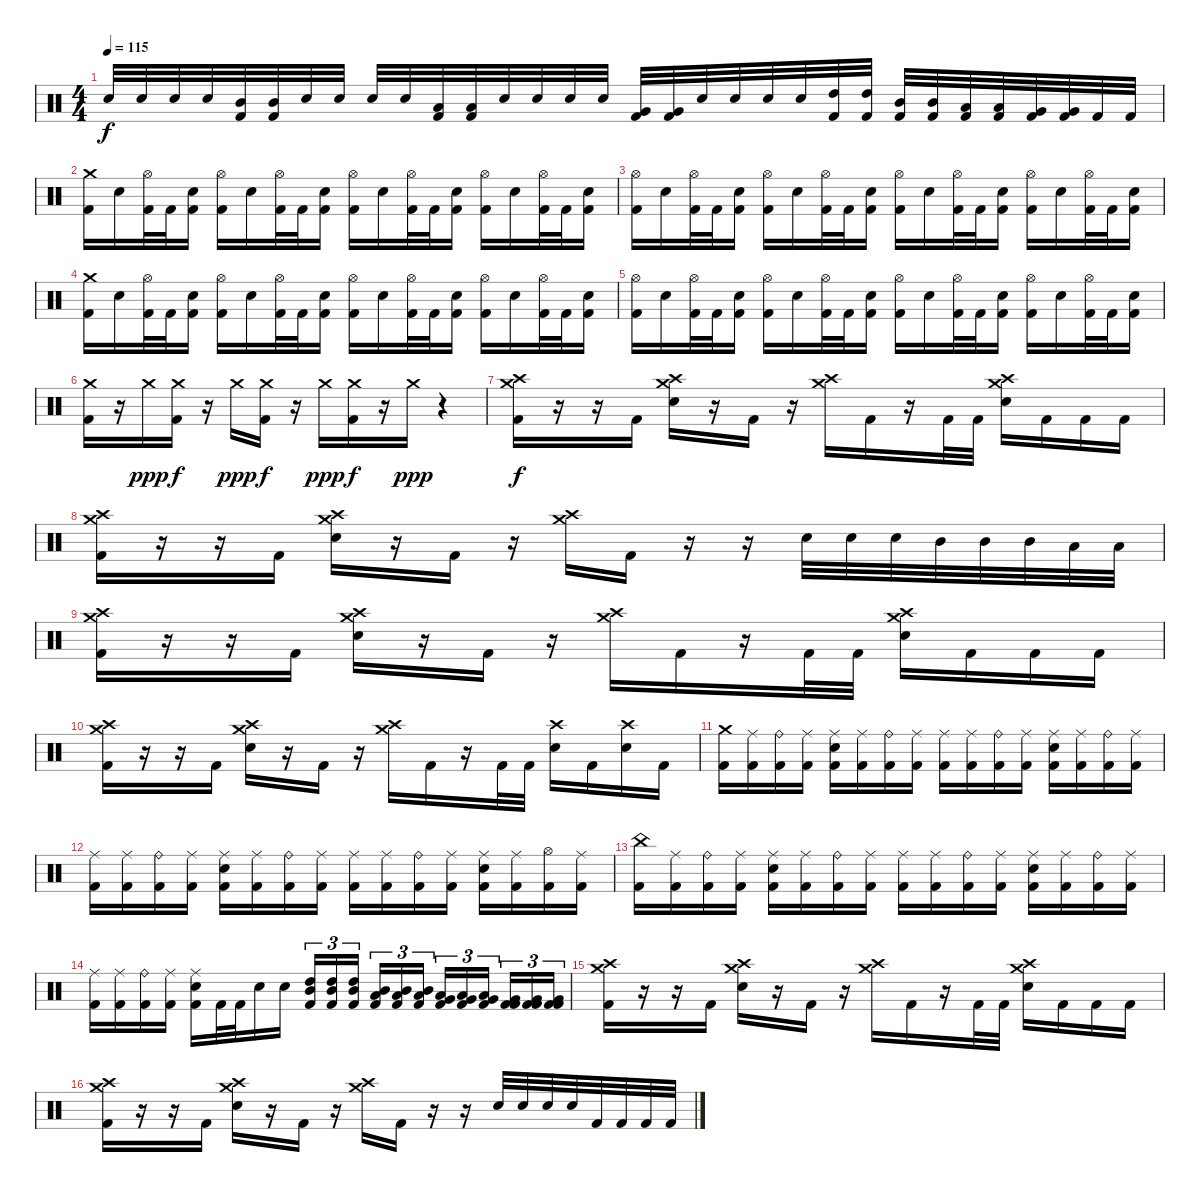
\track "" {instrument percussion}
\staff {score}
\articulation defaults
\ts (4 4)
\tempo 115
\clef neutral
\ks c "Electric Snare (hit)".32{dy f} "Electric Snare (hit)".32 "Electric Snare (hit)".32 "Electric Snare (hit)".32
("Kick (hit) 2" "Mid Tom (hit)").32 ("Kick (hit) 2" "Mid Tom (hit)").32 "Electric Snare (hit)".32 "Electric Snare (hit)".32 "Electric Snare (hit)".32 "Electric Snare (hit)".32 ("Kick (hit) 2" "Low Tom (hit)").32 ("Kick (hit) 2" "Low Tom (hit)").32 "Electric Snare (hit)".32 "Electric Snare (hit)".32 "Electric Snare (hit)".32 "Electric Snare (hit)".32 ("Kick (hit) 2" "Very Low Tom (hit)").32 ("Kick (hit) 2" "Very Low Tom (hit)").32 "Electric Snare (hit)".32 "Electric Snare (hit)".32 "Electric Snare (hit)".32 "Electric Snare (hit)".32 ("Kick (hit) 2" "High Tom (hit)").32 ("Kick (hit) 2" "High Tom (hit)").32 ("Kick (hit) 2" "Mid Tom (hit)").32 ("Kick (hit) 2" "Mid Tom (hit)").32 ("Kick (hit) 2" "Low Tom (hit)").32 ("Kick (hit) 2" "Low Tom (hit)").32 ("Kick (hit) 2" "Very Low Tom (hit)").32 ("Kick (hit) 2" "Very Low Tom (hit)").32 "Kick (hit) 2".32 "Kick (hit) 2".32 |
("Kick (hit) 2" "Crash medium (hit)").16 "Electric Snare (hit)".16 ("Kick (hit) 2" "Hi-Hat (open)").32 "Kick (hit) 2".32 ("Kick (hit) 2" "Electric Snare (hit)").16 ("Kick (hit) 2" "Hi-Hat (open)").16 "Electric Snare (hit)".16 ("Kick (hit) 2" "Hi-Hat (open)").32 "Kick (hit) 2".32 ("Kick (hit) 2" "Electric Snare (hit)").16 ("Kick (hit) 2" "Hi-Hat (open)").16 "Electric Snare (hit)".16 ("Kick (hit) 2" "Hi-Hat (open)").32 "Kick (hit) 2".32 ("Kick (hit) 2" "Electric Snare (hit)").16 ("Kick (hit) 2" "Hi-Hat (open)").16 "Electric Snare (hit)".16 ("Kick (hit) 2" "Hi-Hat (open)").32 "Kick (hit) 2".32 ("Kick (hit) 2" "Electric Snare (hit)").16 |
("Kick (hit) 2" "Hi-Hat (open)").16 "Electric Snare (hit)".16 ("Kick (hit) 2" "Hi-Hat (open)").32 "Kick (hit) 2".32 ("Kick (hit) 2" "Electric Snare (hit)").16 ("Kick (hit) 2" "Hi-Hat (open)").16 "Electric Snare (hit)".16 ("Kick (hit) 2" "Hi-Hat (open)").32 "Kick (hit) 2".32 ("Kick (hit) 2" "Electric Snare (hit)").16 ("Kick (hit) 2" "Hi-Hat (open)").16 "Electric Snare (hit)".16 ("Kick (hit) 2" "Hi-Hat (open)").32 "Kick (hit) 2".32 ("Kick (hit) 2" "Electric Snare (hit)").16 ("Kick (hit) 2" "Hi-Hat (open)").16 "Electric Snare (hit)".16 ("Kick (hit) 2" "Hi-Hat (open)").32 "Kick (hit) 2".32 ("Kick (hit) 2" "Electric Snare (hit)").16 |
("Kick (hit) 2" "Crash medium (hit)").16 "Electric Snare (hit)".16 ("Kick (hit) 2" "Hi-Hat (open)").32 "Kick (hit) 2".32 ("Kick (hit) 2" "Electric Snare (hit)").16 ("Kick (hit) 2" "Hi-Hat (open)").16 "Electric Snare (hit)".16 ("Kick (hit) 2" "Hi-Hat (open)").32 "Kick (hit) 2".32 ("Kick (hit) 2" "Electric Snare (hit)").16 ("Kick (hit) 2" "Hi-Hat (open)").16 "Electric Snare (hit)".16 ("Kick (hit) 2" "Hi-Hat (open)").32 "Kick (hit) 2".32 ("Kick (hit) 2" "Electric Snare (hit)").16 ("Kick (hit) 2" "Hi-Hat (open)").16 "Electric Snare (hit)".16 ("Kick (hit) 2" "Hi-Hat (open)").32 "Kick (hit) 2".32 ("Kick (hit) 2" "Electric Snare (hit)").16 |
("Kick (hit) 2" "Hi-Hat (open)").16 "Electric Snare (hit)".16 ("Kick (hit) 2" "Hi-Hat (open)").32 "Kick (hit) 2".32 ("Kick (hit) 2" "Electric Snare (hit)").16 ("Kick (hit) 2" "Hi-Hat (open)").16 "Electric Snare (hit)".16 ("Kick (hit) 2" "Hi-Hat (open)").32 "Kick (hit) 2".32 ("Kick (hit) 2" "Electric Snare (hit)").16 ("Kick (hit) 2" "Hi-Hat (open)").16 "Electric Snare (hit)".16 ("Kick (hit) 2" "Hi-Hat (open)").32 "Kick (hit) 2".32 ("Kick (hit) 2" "Electric Snare (hit)").16 ("Kick (hit) 2" "Hi-Hat (open)").16 "Electric Snare (hit)".16 ("Kick (hit) 2" "Hi-Hat (open)").32 "Kick (hit) 2".32 ("Kick (hit) 2" "Electric Snare (hit)").16 |
("Kick (hit) 2" "Crash medium (hit)").16 r.16 "Crash medium (hit)".16{dy ppp} ("Kick (hit) 2" "Crash medium (hit)").16{dy f} r.16 "Crash medium (hit)".16{dy ppp} ("Kick (hit) 2" "Crash medium (hit)").16{dy f} r.16 "Crash medium (hit)".16{dy ppp} ("Kick (hit) 2" "Crash medium (hit)").16{dy f} r.16 "Crash medium (hit)".16{dy ppp} r.4 |
("Kick (hit) 2" "Crash high (hit)" "Crash medium (hit)").16{dy f} r.16 r.16 "Kick (hit) 2".16 ("Electric Snare (hit)" "Crash high (hit)" "Crash medium (hit)").16 r.16 "Kick (hit) 2".16 r.16 ("Crash high (hit)" "Crash medium (hit)").16 "Kick (hit) 2".16 r.16 "Kick (hit) 2".32 "Kick (hit) 2".32 ("Electric Snare (hit)" "Crash high (hit)" "Crash medium (hit)").16 "Kick (hit) 2".16 "Kick (hit) 2".16 "Kick (hit) 2".16 |
("Kick (hit) 2" "Crash high (hit)" "Crash medium (hit)").16 r.16 r.16 "Kick (hit) 2".16 ("Electric Snare (hit)" "Crash high (hit)" "Crash medium (hit)").16 r.16 "Kick (hit) 2".16 r.16 ("Crash high (hit)" "Crash medium (hit)").16 "Kick (hit) 2".16 r.16 r.16 "Electric Snare (hit)".32 "Electric Snare (hit)".32 "Electric Snare (hit)".32 "Mid Tom (hit)".32 "Mid Tom (hit)".32 "Mid Tom (hit)".32 "Low Tom (hit)".32 "Low Tom (hit)".32 |
("Kick (hit) 2" "Crash high (hit)" "Crash medium (hit)").16 r.16 r.16 "Kick (hit) 2".16 ("Electric Snare (hit)" "Crash high (hit)" "Crash medium (hit)").16 r.16 "Kick (hit) 2".16 r.16 ("Crash high (hit)" "Crash medium (hit)").16 "Kick (hit) 2".16 r.16 "Kick (hit) 2".32 "Kick (hit) 2".32 ("Electric Snare (hit)" "Crash high (hit)" "Crash medium (hit)").16 "Kick (hit) 2".16 "Kick (hit) 2".16 "Kick (hit) 2".16 |
("Kick (hit) 2" "Crash high (hit)" "Crash medium (hit)").16 r.16 r.16 "Kick (hit) 2".16 ("Electric Snare (hit)" "Crash high (hit)" "Crash medium (hit)").16 r.16 "Kick (hit) 2".16 r.16 ("Crash high (hit)" "Crash medium (hit)").16 "Kick (hit) 2".16 r.16 "Kick (hit) 2".32 "Kick (hit) 2".32 ("Electric Snare (hit)" "Crash high (hit)").16 "Kick (hit) 2".16 ("Electric Snare (hit)" "Crash high (hit)").16 "Kick (hit) 2".16 |
("Kick (hit) 2" "Crash medium (hit)").16 ("Kick (hit) 2" "Ride (middle)").16 ("Kick (hit) 2" "Ride (bell)").16 ("Kick (hit) 2" "Ride (middle)").16 ("Kick (hit) 2" "Electric Snare (hit)" "Ride (middle)").16 ("Kick (hit) 2" "Ride (middle)").16 ("Kick (hit) 2" "Ride (bell)").16 ("Kick (hit) 2" "Ride (middle)").16 ("Kick (hit) 2" "Ride (middle)").16 ("Kick (hit) 2" "Ride (middle)").16 ("Kick (hit) 2" "Ride (bell)").16 ("Kick (hit) 2" "Ride (middle)").16 ("Kick (hit) 2" "Electric Snare (hit)" "Ride (middle)").16 ("Kick (hit) 2" "Ride (middle)").16 ("Kick (hit) 2" "Ride (bell)").16 ("Kick (hit) 2" "Ride (middle)").16 |
("Kick (hit) 2" "Ride (middle)").16 ("Kick (hit) 2" "Ride (middle)").16 ("Kick (hit) 2" "Ride (bell)").16 ("Kick (hit) 2" "Ride (middle)").16 ("Kick (hit) 2" "Electric Snare (hit)" "Ride (middle)").16 ("Kick (hit) 2" "Ride (middle)").16 ("Kick (hit) 2" "Ride (bell)").16 ("Kick (hit) 2" "Ride (middle)").16 ("Kick (hit) 2" "Ride (middle)").16 ("Kick (hit) 2" "Ride (middle)").16 ("Kick (hit) 2" "Ride (bell)").16 ("Kick (hit) 2" "Ride (middle)").16 ("Kick (hit) 2" "Electric Snare (hit)" "Ride (middle)").16 ("Kick (hit) 2" "Ride (middle)").16 ("Kick (hit) 2" "Hi-Hat (open)").16 ("Kick (hit) 2" "Ride (middle)").16 |
("Kick (hit) 2" "China (hit)").16 ("Kick (hit) 2" "Ride (middle)").16 ("Kick (hit) 2" "Ride (bell)").16 ("Kick (hit) 2" "Ride (middle)").16 ("Kick (hit) 2" "Electric Snare (hit)" "Ride (middle)").16 ("Kick (hit) 2" "Ride (middle)").16 ("Kick (hit) 2" "Ride (bell)").16 ("Kick (hit) 2" "Ride (middle)").16 ("Kick (hit) 2" "Ride (middle)").16 ("Kick (hit) 2" "Ride (middle)").16 ("Kick (hit) 2" "Ride (bell)").16 ("Kick (hit) 2" "Ride (middle)").16 ("Kick (hit) 2" "Electric Snare (hit)" "Ride (middle)").16 ("Kick (hit) 2" "Ride (middle)").16 ("Kick (hit) 2" "Ride (bell)").16 ("Kick (hit) 2" "Ride (middle)").16 |
("Kick (hit) 2" "Ride (middle)").16 ("Kick (hit) 2" "Ride (middle)").16 ("Kick (hit) 2" "Ride (bell)").16 ("Kick (hit) 2" "Ride (middle)").16 ("Kick (hit) 2" "Electric Snare (hit)" "Ride (middle)").16 "Kick (hit) 2".32 "Kick (hit) 2".32 "Electric Snare (hit)".16 "Electric Snare (hit)".16 ("Kick (hit) 2" "Mid Tom (hit)" "High Tom (hit)").16{tu (3 2)} ("Kick (hit) 2" "Mid Tom (hit)" "High Tom (hit)").16{tu (3 2)} ("Kick (hit) 2" "Mid Tom (hit)" "High Tom (hit)").16{tu (3 2)} ("Kick (hit) 2" "Low Tom (hit)" "Mid Tom (hit)").16{tu (3 2)} ("Kick (hit) 2" "Low Tom (hit)" "Mid Tom (hit)").16{tu (3 2)} ("Kick (hit) 2" "Low Tom (hit)" "Mid Tom (hit)").16{tu (3 2)} ("Kick (hit) 2" "Very Low Tom (hit)" "Low Tom (hit)").16{tu (3 2)} ("Kick (hit) 2" "Very Low Tom (hit)" "Low Tom (hit)").16{tu (3 2)} ("Kick (hit) 2" "Very Low Tom (hit)" "Low Tom (hit)").16{tu (3 2)} ("Kick (hit) 2" "Kick (hit) 2" "Very Low Tom (hit)").16{tu (3 2)} ("Kick (hit) 2" "Kick (hit) 2" "Very Low Tom (hit)").16{tu (3 2)} ("Kick (hit) 2" "Kick (hit) 2" "Very Low Tom (hit)").16{tu (3 2)} |
("Kick (hit) 2" "Crash high (hit)" "Crash medium (hit)").16 r.16 r.16 "Kick (hit) 2".16 ("Electric Snare (hit)" "Crash high (hit)" "Crash medium (hit)").16 r.16 "Kick (hit) 2".16 r.16 ("Crash high (hit)" "Crash medium (hit)").16 "Kick (hit) 2".16 r.16 "Kick (hit) 2".32 "Kick (hit) 2".32 ("Electric Snare (hit)" "Crash high (hit)" "Crash medium (hit)").16 "Kick (hit) 2".16 "Kick (hit) 2".16 "Kick (hit) 2".16 |
("Kick (hit) 2" "Crash high (hit)" "Crash medium (hit)").16 r.16 r.16 "Kick (hit) 2".16 ("Electric Snare (hit)" "Crash high (hit)" "Crash medium (hit)").16 r.16 "Kick (hit) 2".16 r.16 ("Crash high (hit)" "Crash medium (hit)").16 "Kick (hit) 2".16 r.16 r.16 "Electric Snare (hit)".32 "Electric Snare (hit)".32 "Electric Snare (hit)".32 "Electric Snare (hit)".32 "Kick (hit) 2".32 "Kick (hit) 2".32 "Kick (hit) 2".32 "Kick (hit) 2".32
